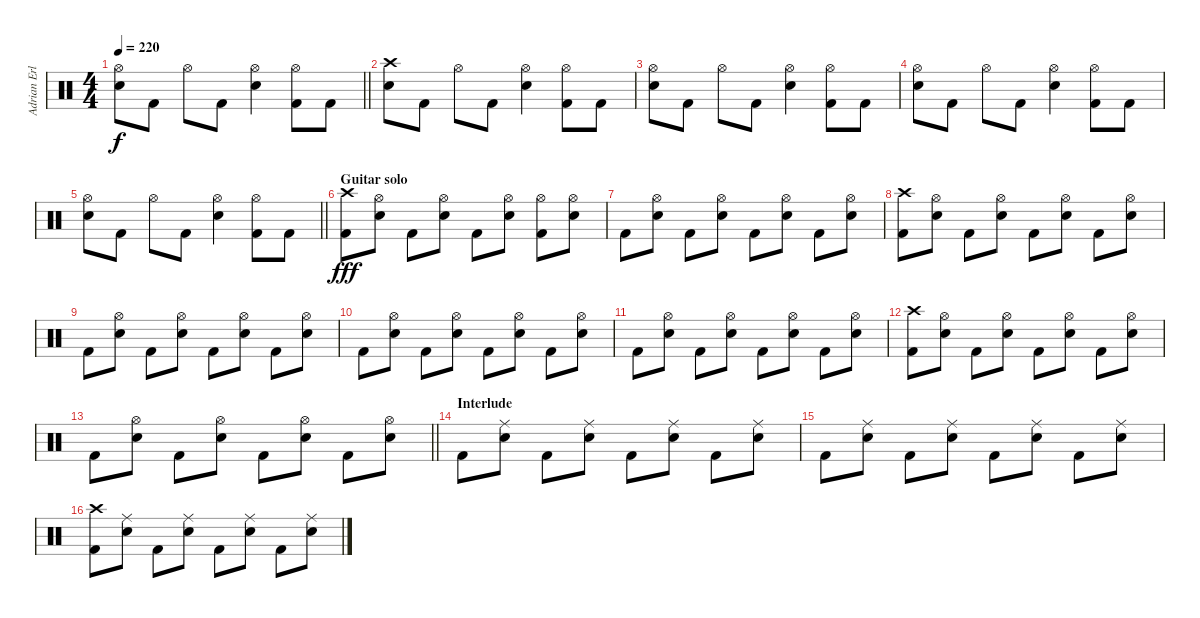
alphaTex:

\track ("Adrian Erlandsson" "Adrian Erl") {instrument percussion}
\staff {score}
\articulation defaults
\ts (4 4)
\tempo 220
\clef neutral
\barLineRight lightlight
\ks c
("Hi-Hat (open)" "Electric Snare (hit)").8{dy f} "Kick (hit) 2".8 "Hi-Hat (open)".8 "Kick (hit) 2".8 ("Hi-Hat (open)" "Electric Snare (hit)").4 ("Hi-Hat (open)" "Kick (hit) 2").8 "Kick (hit) 2".8 |
("Crash high (hit)" "Electric Snare (hit)").8 "Kick (hit) 2".8 "Hi-Hat (open)".8 "Kick (hit) 2".8 ("Hi-Hat (open)" "Electric Snare (hit)").4 ("Hi-Hat (open)" "Kick (hit) 2").8 "Kick (hit) 2".8 |
("Hi-Hat (open)" "Electric Snare (hit)").8 "Kick (hit) 2".8 "Hi-Hat (open)".8 "Kick (hit) 2".8 ("Hi-Hat (open)" "Electric Snare (hit)").4 ("Hi-Hat (open)" "Kick (hit) 2").8 "Kick (hit) 2".8 |
("Hi-Hat (open)" "Electric Snare (hit)").8 "Kick (hit) 2".8 "Hi-Hat (open)".8 "Kick (hit) 2".8 ("Hi-Hat (open)" "Electric Snare (hit)").4 ("Hi-Hat (open)" "Kick (hit) 2").8 "Kick (hit) 2".8 |
\barLineRight lightlight
("Hi-Hat (open)" "Electric Snare (hit)").8 "Kick (hit) 2".8 "Hi-Hat (open)".8 "Kick (hit) 2".8 ("Hi-Hat (open)" "Electric Snare (hit)").4 ("Hi-Hat (open)" "Kick (hit) 2").8 "Kick (hit) 2".8 |
\section ("" "Guitar solo")
("Crash high (hit)" "Kick (hit) 2").8{dy fff} ("Hi-Hat (open)" "Electric Snare (hit)").8 "Kick (hit) 2".8 ("Hi-Hat (open)" "Electric Snare (hit)").8 "Kick (hit) 2".8 ("Hi-Hat (open)" "Electric Snare (hit)").8 ("Hi-Hat (open)" "Kick (hit) 2").8 ("Hi-Hat (open)" "Electric Snare (hit)").8 |
"Kick (hit) 2".8 ("Hi-Hat (open)" "Electric Snare (hit)").8 "Kick (hit) 2".8 ("Hi-Hat (open)" "Electric Snare (hit)").8 "Kick (hit) 2".8 ("Hi-Hat (open)" "Electric Snare (hit)").8 "Kick (hit) 2".8 ("Hi-Hat (open)" "Electric Snare (hit)").8 |
("Crash high (hit)" "Kick (hit) 2").8 ("Hi-Hat (open)" "Electric Snare (hit)").8 "Kick (hit) 2".8 ("Hi-Hat (open)" "Electric Snare (hit)").8 "Kick (hit) 2".8 ("Hi-Hat (open)" "Electric Snare (hit)").8 "Kick (hit) 2".8 ("Hi-Hat (open)" "Electric Snare (hit)").8 |
"Kick (hit) 2".8 ("Hi-Hat (open)" "Electric Snare (hit)").8 "Kick (hit) 2".8 ("Hi-Hat (open)" "Electric Snare (hit)").8 "Kick (hit) 2".8 ("Hi-Hat (open)" "Electric Snare (hit)").8 "Kick (hit) 2".8 ("Hi-Hat (open)" "Electric Snare (hit)").8 |
"Kick (hit) 2".8 ("Hi-Hat (open)" "Electric Snare (hit)").8 "Kick (hit) 2".8 ("Hi-Hat (open)" "Electric Snare (hit)").8 "Kick (hit) 2".8 ("Hi-Hat (open)" "Electric Snare (hit)").8 "Kick (hit) 2".8 ("Hi-Hat (open)" "Electric Snare (hit)").8 |
"Kick (hit) 2".8 ("Hi-Hat (open)" "Electric Snare (hit)").8 "Kick (hit) 2".8 ("Hi-Hat (open)" "Electric Snare (hit)").8 "Kick (hit) 2".8 ("Hi-Hat (open)" "Electric Snare (hit)").8 "Kick (hit) 2".8 ("Hi-Hat (open)" "Electric Snare (hit)").8 |
("Crash high (hit)" "Kick (hit) 2").8 ("Hi-Hat (open)" "Electric Snare (hit)").8 "Kick (hit) 2".8 ("Hi-Hat (open)" "Electric Snare (hit)").8 "Kick (hit) 2".8 ("Hi-Hat (open)" "Electric Snare (hit)").8 "Kick (hit) 2".8 ("Hi-Hat (open)" "Electric Snare (hit)").8 |
\barLineRight lightlight "Kick (hit) 2".8
("Hi-Hat (open)" "Electric Snare (hit)").8 "Kick (hit) 2".8 ("Hi-Hat (open)" "Electric Snare (hit)").8 "Kick (hit) 2".8 ("Hi-Hat (open)" "Electric Snare (hit)").8 "Kick (hit) 2".8 ("Hi-Hat (open)" "Electric Snare (hit)").8 |
\section ("" "Interlude")
"Kick (hit) 2".8 ("Ride (middle)" "Electric Snare (hit)").8 "Kick (hit) 2".8 ("Ride (middle)" "Electric Snare (hit)").8 "Kick (hit) 2".8 ("Ride (middle)" "Electric Snare (hit)").8 "Kick (hit) 2".8 ("Ride (middle)" "Electric Snare (hit)").8 |
"Kick (hit) 2".8 ("Ride (middle)" "Electric Snare (hit)").8 "Kick (hit) 2".8 ("Ride (middle)" "Electric Snare (hit)").8 "Kick (hit) 2".8 ("Ride (middle)" "Electric Snare (hit)").8 "Kick (hit) 2".8 ("Ride (middle)" "Electric Snare (hit)").8 |
("Crash high (hit)" "Kick (hit) 2").8 ("Ride (middle)" "Electric Snare (hit)").8 "Kick (hit) 2".8 ("Ride (middle)" "Electric Snare (hit)").8 "Kick (hit) 2".8 ("Ride (middle)" "Electric Snare (hit)").8 "Kick (hit) 2".8 ("Ride (middle)" "Electric Snare (hit)").8
